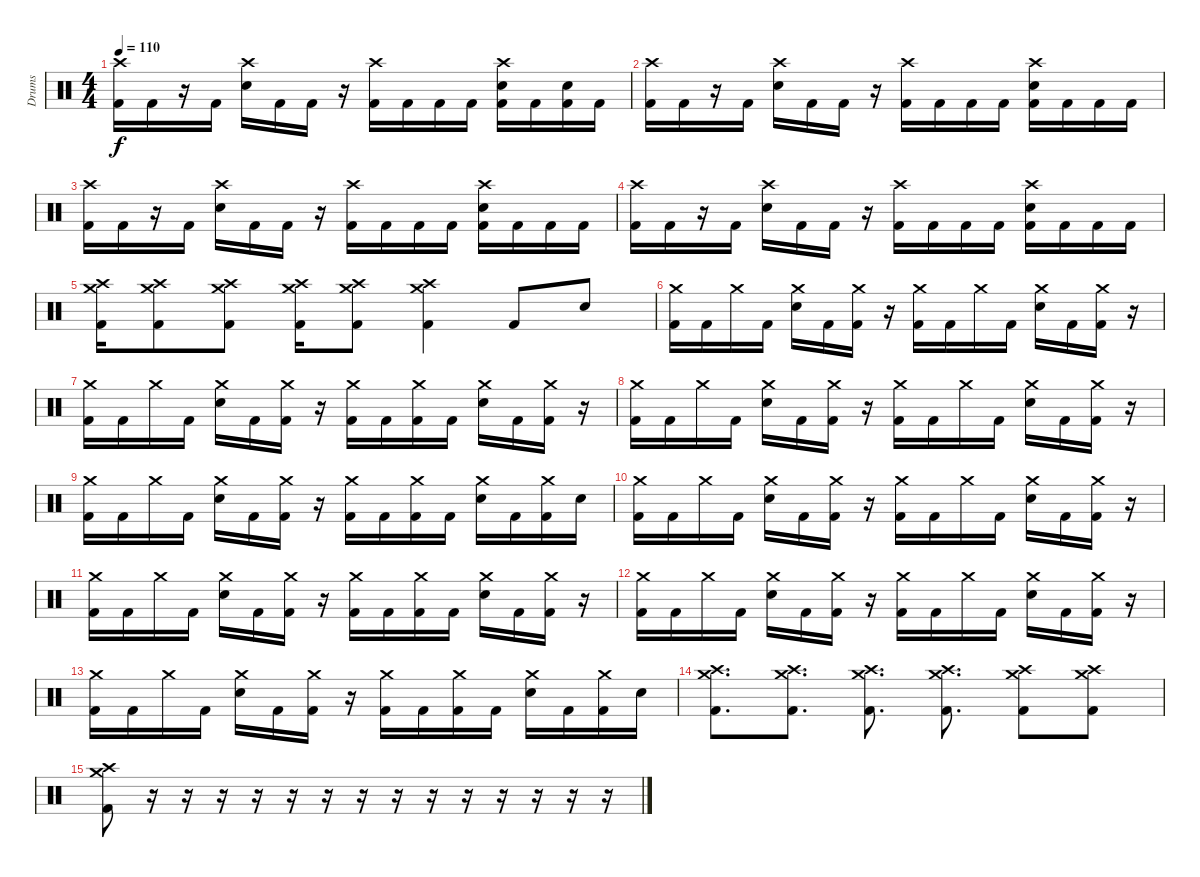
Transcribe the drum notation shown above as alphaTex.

\track ("Drums" "Drums") {instrument percussion}
\staff {score}
\articulation defaults
\ts (4 4)
\tempo 110
\clef neutral
\ks c
("Crash high (hit)" "Kick (hit) 2").16{dy f} "Kick (hit) 2".16 r.16 "Kick (hit) 2".16 ("Crash high (hit)" "Electric Snare (hit)").16 "Kick (hit) 2".16 "Kick (hit) 2".16 r.16 ("Crash high (hit)" "Kick (hit) 2").16 "Kick (hit) 2".16 "Kick (hit) 2".16 "Kick (hit) 2".16 ("Crash high (hit)" "Electric Snare (hit)" "Kick (hit) 2").16 "Kick (hit) 2".16 ("Electric Snare (hit)" "Kick (hit) 2").16 "Kick (hit) 2".16 |
("Crash high (hit)" "Kick (hit) 2").16 "Kick (hit) 2".16 r.16 "Kick (hit) 2".16 ("Crash high (hit)" "Electric Snare (hit)").16 "Kick (hit) 2".16 "Kick (hit) 2".16 r.16 ("Crash high (hit)" "Kick (hit) 2").16 "Kick (hit) 2".16 "Kick (hit) 2".16 "Kick (hit) 2".16 ("Crash high (hit)" "Electric Snare (hit)" "Kick (hit) 2").16 "Kick (hit) 2".16 "Kick (hit) 2".16 "Kick (hit) 2".16 |
("Crash high (hit)" "Kick (hit) 2").16 "Kick (hit) 2".16 r.16 "Kick (hit) 2".16 ("Crash high (hit)" "Electric Snare (hit)").16 "Kick (hit) 2".16 "Kick (hit) 2".16 r.16 ("Crash high (hit)" "Kick (hit) 2").16 "Kick (hit) 2".16 "Kick (hit) 2".16 "Kick (hit) 2".16 ("Crash high (hit)" "Electric Snare (hit)" "Kick (hit) 2").16 "Kick (hit) 2".16 "Kick (hit) 2".16 "Kick (hit) 2".16 |
("Crash high (hit)" "Kick (hit) 2").16 "Kick (hit) 2".16 r.16 "Kick (hit) 2".16 ("Crash high (hit)" "Electric Snare (hit)").16 "Kick (hit) 2".16 "Kick (hit) 2".16 r.16 ("Crash high (hit)" "Kick (hit) 2").16 "Kick (hit) 2".16 "Kick (hit) 2".16 "Kick (hit) 2".16 ("Crash high (hit)" "Electric Snare (hit)" "Kick (hit) 2").16 "Kick (hit) 2".16 "Kick (hit) 2".16 "Kick (hit) 2".16 |
("Crash high (hit)" "Crash medium (hit)" "Kick (hit) 2").16 ("Crash high (hit)" "Crash medium (hit)" "Kick (hit) 2").8 ("Crash high (hit)" "Crash medium (hit)" "Kick (hit) 2").8 ("Crash high (hit)" "Crash medium (hit)" "Kick (hit) 2").16 ("Crash high (hit)" "Crash medium (hit)" "Kick (hit) 2").8 ("Crash high (hit)" "Crash medium (hit)" "Kick (hit) 2").4 "Kick (hit) 2".8 "Electric Snare (hit)".8 |
("Crash medium (hit)" "Kick (hit) 2").16 "Kick (hit) 2".16 "Crash medium (hit)".16 "Kick (hit) 2".16 ("Crash medium (hit)" "Snare (hit) 2").16 "Kick (hit) 2".16 ("Crash medium (hit)" "Kick (hit) 2").16 r.16 ("Crash medium (hit)" "Kick (hit) 2").16 "Kick (hit) 2".16 "Crash medium (hit)".16 "Kick (hit) 2".16 ("Crash medium (hit)" "Snare (hit) 2").16 "Kick (hit) 2".16 ("Crash medium (hit)" "Kick (hit) 2").16 r.16 |
("Crash medium (hit)" "Kick (hit) 2").16 "Kick (hit) 2".16 "Crash medium (hit)".16 "Kick (hit) 2".16 ("Crash medium (hit)" "Snare (hit) 2").16 "Kick (hit) 2".16 ("Crash medium (hit)" "Kick (hit) 2").16 r.16 ("Crash medium (hit)" "Kick (hit) 2").16 "Kick (hit) 2".16 ("Crash medium (hit)" "Kick (hit) 2").16 "Kick (hit) 2".16 ("Crash medium (hit)" "Snare (hit) 2").16 "Kick (hit) 2".16 ("Crash medium (hit)" "Kick (hit) 2").16 r.16 |
("Crash medium (hit)" "Kick (hit) 2").16 "Kick (hit) 2".16 "Crash medium (hit)".16 "Kick (hit) 2".16 ("Crash medium (hit)" "Snare (hit) 2").16 "Kick (hit) 2".16 ("Crash medium (hit)" "Kick (hit) 2").16 r.16 ("Crash medium (hit)" "Kick (hit) 2").16 "Kick (hit) 2".16 "Crash medium (hit)".16 "Kick (hit) 2".16 ("Crash medium (hit)" "Snare (hit) 2").16 "Kick (hit) 2".16 ("Crash medium (hit)" "Kick (hit) 2").16 r.16 |
("Crash medium (hit)" "Kick (hit) 2").16 "Kick (hit) 2".16 "Crash medium (hit)".16 "Kick (hit) 2".16 ("Crash medium (hit)" "Snare (hit) 2").16 "Kick (hit) 2".16 ("Crash medium (hit)" "Kick (hit) 2").16 r.16 ("Crash medium (hit)" "Kick (hit) 2").16 "Kick (hit) 2".16 ("Crash medium (hit)" "Kick (hit) 2").16 "Kick (hit) 2".16 ("Crash medium (hit)" "Snare (hit) 2").16 "Kick (hit) 2".16 ("Crash medium (hit)" "Kick (hit) 2").16 "Snare (hit) 2".16 |
("Crash medium (hit)" "Kick (hit) 2").16 "Kick (hit) 2".16 "Crash medium (hit)".16 "Kick (hit) 2".16 ("Crash medium (hit)" "Snare (hit) 2").16 "Kick (hit) 2".16 ("Crash medium (hit)" "Kick (hit) 2").16 r.16 ("Crash medium (hit)" "Kick (hit) 2").16 "Kick (hit) 2".16 "Crash medium (hit)".16 "Kick (hit) 2".16 ("Crash medium (hit)" "Snare (hit) 2").16 "Kick (hit) 2".16 ("Crash medium (hit)" "Kick (hit) 2").16 r.16 |
("Crash medium (hit)" "Kick (hit) 2").16 "Kick (hit) 2".16 "Crash medium (hit)".16 "Kick (hit) 2".16 ("Crash medium (hit)" "Snare (hit) 2").16 "Kick (hit) 2".16 ("Crash medium (hit)" "Kick (hit) 2").16 r.16 ("Crash medium (hit)" "Kick (hit) 2").16 "Kick (hit) 2".16 ("Crash medium (hit)" "Kick (hit) 2").16 "Kick (hit) 2".16 ("Crash medium (hit)" "Snare (hit) 2").16 "Kick (hit) 2".16 ("Crash medium (hit)" "Kick (hit) 2").16 r.16 |
("Crash medium (hit)" "Kick (hit) 2").16 "Kick (hit) 2".16 "Crash medium (hit)".16 "Kick (hit) 2".16 ("Crash medium (hit)" "Snare (hit) 2").16 "Kick (hit) 2".16 ("Crash medium (hit)" "Kick (hit) 2").16 r.16 ("Crash medium (hit)" "Kick (hit) 2").16 "Kick (hit) 2".16 "Crash medium (hit)".16 "Kick (hit) 2".16 ("Crash medium (hit)" "Snare (hit) 2").16 "Kick (hit) 2".16 ("Crash medium (hit)" "Kick (hit) 2").16 r.16 |
("Crash medium (hit)" "Kick (hit) 2").16 "Kick (hit) 2".16 "Crash medium (hit)".16 "Kick (hit) 2".16 ("Crash medium (hit)" "Snare (hit) 2").16 "Kick (hit) 2".16 ("Crash medium (hit)" "Kick (hit) 2").16 r.16 ("Crash medium (hit)" "Kick (hit) 2").16 "Kick (hit) 2".16 ("Crash medium (hit)" "Kick (hit) 2").16 "Kick (hit) 2".16 ("Crash medium (hit)" "Snare (hit) 2").16 "Kick (hit) 2".16 ("Crash medium (hit)" "Kick (hit) 2").16 "Snare (hit) 2".16 |
("Crash medium (hit)" "Crash high (hit)" "Kick (hit) 2").8{d} ("Crash medium (hit)" "Crash high (hit)" "Kick (hit) 2").8{d} ("Crash medium (hit)" "Crash high (hit)" "Kick (hit) 2").8{d} ("Crash medium (hit)" "Crash high (hit)" "Kick (hit) 2").8{d} ("Crash medium (hit)" "Crash high (hit)" "Kick (hit) 2").8 ("Crash medium (hit)" "Crash high (hit)" "Kick (hit) 2").8 |
("Crash medium (hit)" "Crash high (hit)" "Kick (hit) 2").8 r.16 r.16 r.16 r.16 r.16 r.16 r.16 r.16 r.16 r.16 r.16 r.16 r.16 r.16
